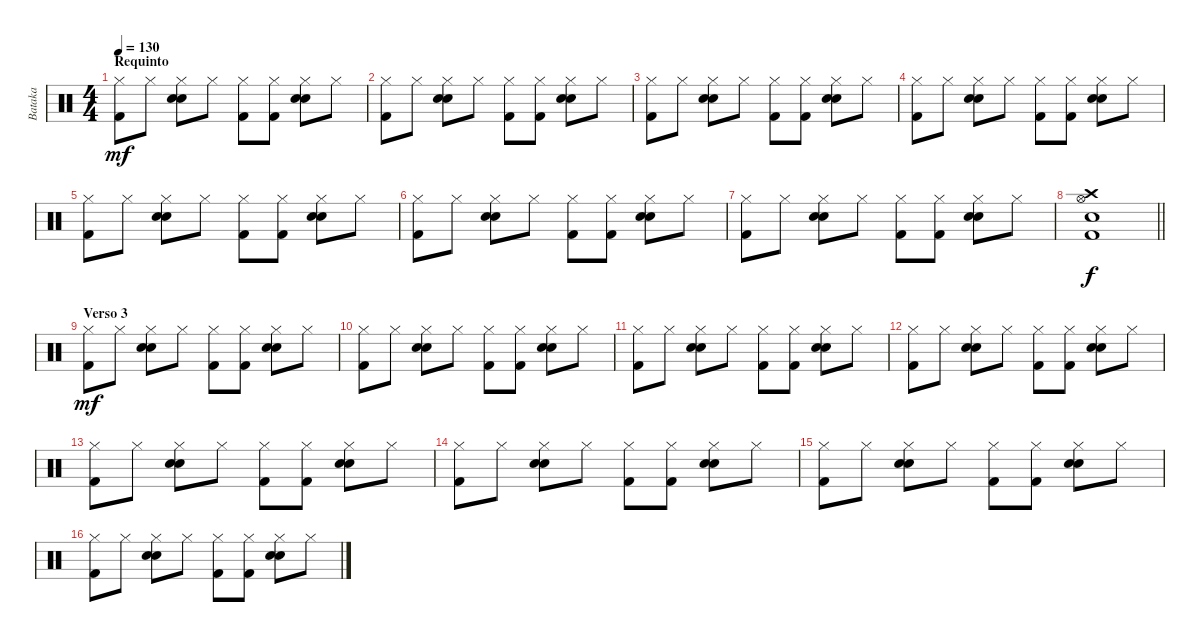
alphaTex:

\track ("Bataka" "Bataka") {instrument percussion}
\staff
\articulation defaults
\ts (4 4)
\section ("" "Requinto")
\tempo 130
\clef neutral
\ks c
("Hi-Hat (closed)" "Kick (hit) 2").8{dy mf volume 8} "Hi-Hat (closed)".8 ("Hi-Hat (closed)" "Electric Snare (hit)" "Snare (hit) 2").8 "Hi-Hat (closed)".8 ("Hi-Hat (closed)" "Kick (hit) 2").8 ("Hi-Hat (closed)" "Kick (hit) 2").8 ("Hi-Hat (closed)" "Electric Snare (hit)" "Snare (hit) 2").8 "Hi-Hat (closed)".8 |
("Hi-Hat (closed)" "Kick (hit) 2").8 "Hi-Hat (closed)".8 ("Hi-Hat (closed)" "Electric Snare (hit)" "Snare (hit) 2").8 "Hi-Hat (closed)".8 ("Hi-Hat (closed)" "Kick (hit) 2").8 ("Hi-Hat (closed)" "Kick (hit) 2").8 ("Hi-Hat (closed)" "Electric Snare (hit)" "Snare (hit) 2").8 "Hi-Hat (closed)".8 |
("Hi-Hat (closed)" "Kick (hit) 2").8 "Hi-Hat (closed)".8 ("Hi-Hat (closed)" "Electric Snare (hit)" "Snare (hit) 2").8 "Hi-Hat (closed)".8 ("Hi-Hat (closed)" "Kick (hit) 2").8 ("Hi-Hat (closed)" "Kick (hit) 2").8 ("Hi-Hat (closed)" "Electric Snare (hit)" "Snare (hit) 2").8 "Hi-Hat (closed)".8 |
("Hi-Hat (closed)" "Kick (hit) 2").8 "Hi-Hat (closed)".8 ("Hi-Hat (closed)" "Electric Snare (hit)" "Snare (hit) 2").8 "Hi-Hat (closed)".8 ("Hi-Hat (closed)" "Kick (hit) 2").8 ("Hi-Hat (closed)" "Kick (hit) 2").8 ("Hi-Hat (closed)" "Electric Snare (hit)" "Snare (hit) 2").8 "Hi-Hat (closed)".8 |
("Hi-Hat (closed)" "Kick (hit) 2").8 "Hi-Hat (closed)".8 ("Hi-Hat (closed)" "Electric Snare (hit)" "Snare (hit) 2").8 "Hi-Hat (closed)".8 ("Hi-Hat (closed)" "Kick (hit) 2").8 ("Hi-Hat (closed)" "Kick (hit) 2").8 ("Hi-Hat (closed)" "Electric Snare (hit)" "Snare (hit) 2").8 "Hi-Hat (closed)".8 |
("Hi-Hat (closed)" "Kick (hit) 2").8 "Hi-Hat (closed)".8 ("Hi-Hat (closed)" "Electric Snare (hit)" "Snare (hit) 2").8 "Hi-Hat (closed)".8 ("Hi-Hat (closed)" "Kick (hit) 2").8 ("Hi-Hat (closed)" "Kick (hit) 2").8 ("Hi-Hat (closed)" "Electric Snare (hit)" "Snare (hit) 2").8 "Hi-Hat (closed)".8 |
("Hi-Hat (closed)" "Kick (hit) 2").8 "Hi-Hat (closed)".8 ("Hi-Hat (closed)" "Electric Snare (hit)" "Snare (hit) 2").8 "Hi-Hat (closed)".8 ("Hi-Hat (closed)" "Kick (hit) 2").8 ("Hi-Hat (closed)" "Kick (hit) 2").8 ("Hi-Hat (closed)" "Electric Snare (hit)" "Snare (hit) 2").8 "Hi-Hat (closed)".8 |
\barLineRight lightlight
("Crash high (hit)" "Hi-Hat (open)" "Kick (hit) 2" "Electric Snare (hit)").1{dy f} |
\section ("" "Verso 3")
("Hi-Hat (closed)" "Kick (hit) 2").8{dy mf} "Hi-Hat (closed)".8 ("Hi-Hat (closed)" "Electric Snare (hit)" "Snare (hit) 2").8 "Hi-Hat (closed)".8 ("Hi-Hat (closed)" "Kick (hit) 2").8 ("Hi-Hat (closed)" "Kick (hit) 2").8 ("Hi-Hat (closed)" "Electric Snare (hit)" "Snare (hit) 2").8 "Hi-Hat (closed)".8 |
("Hi-Hat (closed)" "Kick (hit) 2").8 "Hi-Hat (closed)".8 ("Hi-Hat (closed)" "Electric Snare (hit)" "Snare (hit) 2").8 "Hi-Hat (closed)".8 ("Hi-Hat (closed)" "Kick (hit) 2").8 ("Hi-Hat (closed)" "Kick (hit) 2").8 ("Hi-Hat (closed)" "Electric Snare (hit)" "Snare (hit) 2").8 "Hi-Hat (closed)".8 |
("Hi-Hat (closed)" "Kick (hit) 2").8 "Hi-Hat (closed)".8 ("Hi-Hat (closed)" "Electric Snare (hit)" "Snare (hit) 2").8 "Hi-Hat (closed)".8 ("Hi-Hat (closed)" "Kick (hit) 2").8 ("Hi-Hat (closed)" "Kick (hit) 2").8 ("Hi-Hat (closed)" "Electric Snare (hit)" "Snare (hit) 2").8 "Hi-Hat (closed)".8 |
("Hi-Hat (closed)" "Kick (hit) 2").8 "Hi-Hat (closed)".8 ("Hi-Hat (closed)" "Electric Snare (hit)" "Snare (hit) 2").8 "Hi-Hat (closed)".8 ("Hi-Hat (closed)" "Kick (hit) 2").8 ("Hi-Hat (closed)" "Kick (hit) 2").8 ("Hi-Hat (closed)" "Electric Snare (hit)" "Snare (hit) 2").8 "Hi-Hat (closed)".8 |
("Hi-Hat (closed)" "Kick (hit) 2").8 "Hi-Hat (closed)".8 ("Hi-Hat (closed)" "Electric Snare (hit)" "Snare (hit) 2").8 "Hi-Hat (closed)".8 ("Hi-Hat (closed)" "Kick (hit) 2").8 ("Hi-Hat (closed)" "Kick (hit) 2").8 ("Hi-Hat (closed)" "Electric Snare (hit)" "Snare (hit) 2").8 "Hi-Hat (closed)".8 |
("Hi-Hat (closed)" "Kick (hit) 2").8 "Hi-Hat (closed)".8 ("Hi-Hat (closed)" "Electric Snare (hit)" "Snare (hit) 2").8 "Hi-Hat (closed)".8 ("Hi-Hat (closed)" "Kick (hit) 2").8 ("Hi-Hat (closed)" "Kick (hit) 2").8 ("Hi-Hat (closed)" "Electric Snare (hit)" "Snare (hit) 2").8 "Hi-Hat (closed)".8 |
("Hi-Hat (closed)" "Kick (hit) 2").8 "Hi-Hat (closed)".8 ("Hi-Hat (closed)" "Electric Snare (hit)" "Snare (hit) 2").8 "Hi-Hat (closed)".8 ("Hi-Hat (closed)" "Kick (hit) 2").8 ("Hi-Hat (closed)" "Kick (hit) 2").8 ("Hi-Hat (closed)" "Electric Snare (hit)" "Snare (hit) 2").8 "Hi-Hat (closed)".8 |
("Hi-Hat (closed)" "Kick (hit) 2").8 "Hi-Hat (closed)".8 ("Hi-Hat (closed)" "Electric Snare (hit)" "Snare (hit) 2").8 "Hi-Hat (closed)".8 ("Hi-Hat (closed)" "Kick (hit) 2").8 ("Hi-Hat (closed)" "Kick (hit) 2").8 ("Hi-Hat (closed)" "Electric Snare (hit)" "Snare (hit) 2").8 "Hi-Hat (closed)".8
